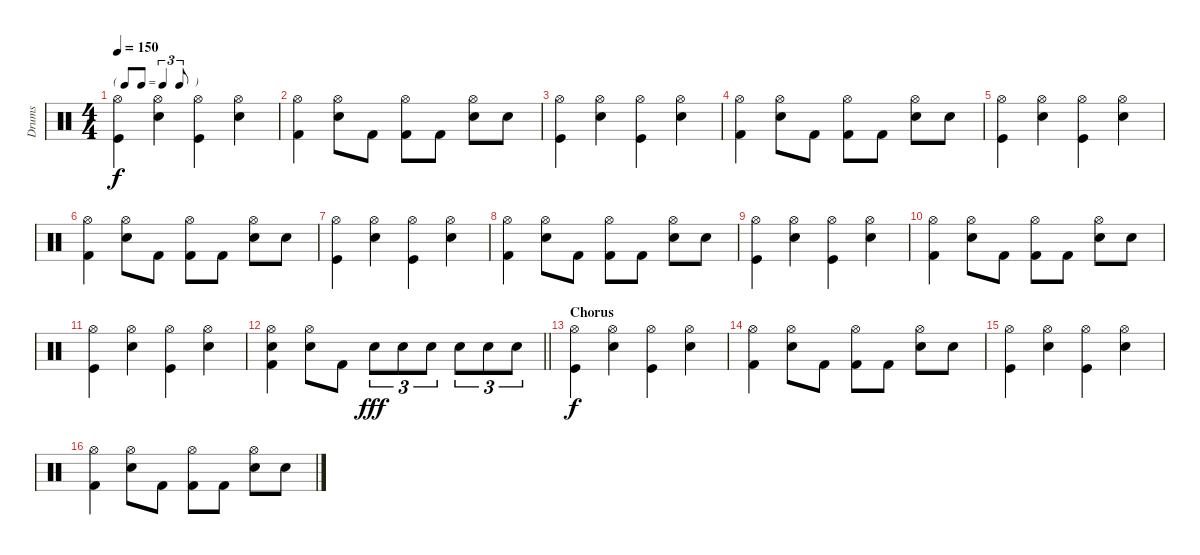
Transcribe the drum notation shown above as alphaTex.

\track ("Drums" "Drums") {instrument percussion}
\staff {score}
\articulation defaults
\ts (4 4)
\tf triplet8th
\tempo 150
\clef neutral
\ks c
("Hi-Hat (open)" "Kick (hit)").4{dy f} ("Hi-Hat (open)" "Snare (hit) 2").4 ("Hi-Hat (open)" "Kick (hit)").4 ("Hi-Hat (open)" "Snare (hit) 2").4 |
("Hi-Hat (open)" "Kick (hit) 2").4 ("Hi-Hat (open)" "Snare (hit) 2").8 "Kick (hit) 2".8 ("Hi-Hat (open)" "Kick (hit) 2").8 "Kick (hit) 2".8 ("Hi-Hat (open)" "Snare (hit) 2").8 "Snare (hit) 2".8 |
("Hi-Hat (open)" "Kick (hit)").4 ("Hi-Hat (open)" "Snare (hit) 2").4 ("Hi-Hat (open)" "Kick (hit)").4 ("Hi-Hat (open)" "Snare (hit) 2").4 |
("Hi-Hat (open)" "Kick (hit) 2").4 ("Hi-Hat (open)" "Snare (hit) 2").8 "Kick (hit) 2".8 ("Hi-Hat (open)" "Kick (hit) 2").8 "Kick (hit) 2".8 ("Hi-Hat (open)" "Snare (hit) 2").8 "Snare (hit) 2".8 |
("Hi-Hat (open)" "Kick (hit)").4 ("Hi-Hat (open)" "Snare (hit) 2").4 ("Hi-Hat (open)" "Kick (hit)").4 ("Hi-Hat (open)" "Snare (hit) 2").4 |
("Hi-Hat (open)" "Kick (hit) 2").4 ("Hi-Hat (open)" "Snare (hit) 2").8 "Kick (hit) 2".8 ("Hi-Hat (open)" "Kick (hit) 2").8 "Kick (hit) 2".8 ("Hi-Hat (open)" "Snare (hit) 2").8 "Snare (hit) 2".8 |
("Hi-Hat (open)" "Kick (hit)").4 ("Hi-Hat (open)" "Snare (hit) 2").4 ("Hi-Hat (open)" "Kick (hit)").4 ("Hi-Hat (open)" "Snare (hit) 2").4 |
("Hi-Hat (open)" "Kick (hit) 2").4 ("Hi-Hat (open)" "Snare (hit) 2").8 "Kick (hit) 2".8 ("Hi-Hat (open)" "Kick (hit) 2").8 "Kick (hit) 2".8 ("Hi-Hat (open)" "Snare (hit) 2").8 "Snare (hit) 2".8 |
("Hi-Hat (open)" "Kick (hit)").4 ("Hi-Hat (open)" "Snare (hit) 2").4 ("Hi-Hat (open)" "Kick (hit)").4 ("Hi-Hat (open)" "Snare (hit) 2").4 |
("Hi-Hat (open)" "Kick (hit) 2").4 ("Hi-Hat (open)" "Snare (hit) 2").8 "Kick (hit) 2".8 ("Hi-Hat (open)" "Kick (hit) 2").8 "Kick (hit) 2".8 ("Hi-Hat (open)" "Snare (hit) 2").8 "Snare (hit) 2".8 |
("Hi-Hat (open)" "Kick (hit)").4 ("Hi-Hat (open)" "Snare (hit) 2").4 ("Hi-Hat (open)" "Kick (hit)").4 ("Hi-Hat (open)" "Snare (hit) 2").4 |
\barLineRight lightlight
("Hi-Hat (open)" "Snare (hit) 2" "Kick (hit) 2").4 ("Hi-Hat (open)" "Snare (hit) 2").8 "Kick (hit) 2".8 "Snare (hit) 2".8{tu (3 2) dy fff} "Snare (hit) 2".8{tu (3 2)} "Snare (hit) 2".8{tu (3 2)} "Snare (hit) 2".8{tu (3 2)} "Snare (hit) 2".8{tu (3 2)} "Snare (hit) 2".8{tu (3 2)} |
\section ("" "Chorus")
("Hi-Hat (open)" "Kick (hit)").4{dy f} ("Hi-Hat (open)" "Snare (hit) 2").4 ("Hi-Hat (open)" "Kick (hit)").4 ("Hi-Hat (open)" "Snare (hit) 2").4 |
("Hi-Hat (open)" "Kick (hit) 2").4 ("Hi-Hat (open)" "Snare (hit) 2").8 "Kick (hit) 2".8 ("Hi-Hat (open)" "Kick (hit) 2").8 "Kick (hit) 2".8 ("Hi-Hat (open)" "Snare (hit) 2").8 "Snare (hit) 2".8 |
("Hi-Hat (open)" "Kick (hit)").4 ("Hi-Hat (open)" "Snare (hit) 2").4 ("Hi-Hat (open)" "Kick (hit)").4 ("Hi-Hat (open)" "Snare (hit) 2").4 |
("Hi-Hat (open)" "Kick (hit) 2").4 ("Hi-Hat (open)" "Snare (hit) 2").8 "Kick (hit) 2".8 ("Hi-Hat (open)" "Kick (hit) 2").8 "Kick (hit) 2".8 ("Hi-Hat (open)" "Snare (hit) 2").8 "Snare (hit) 2".8
